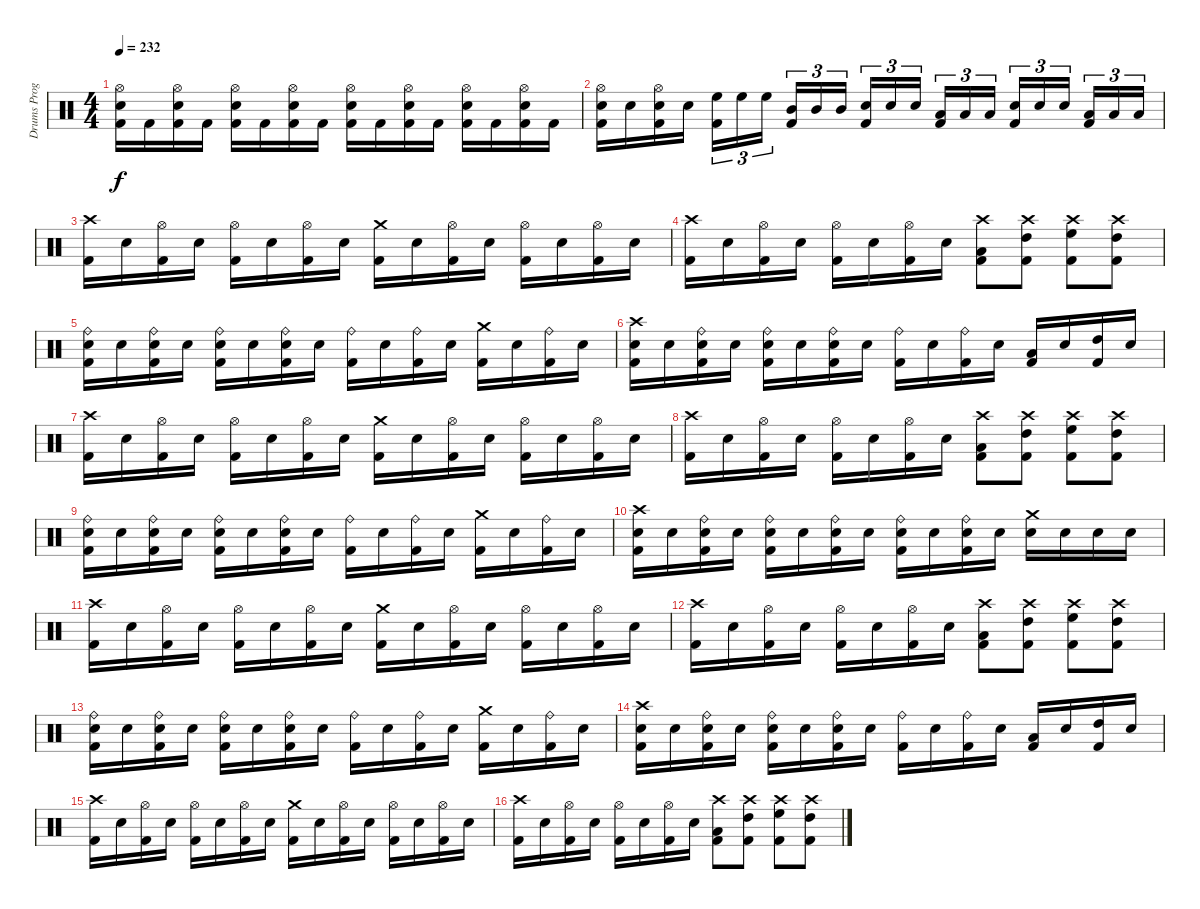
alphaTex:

\track ("Drums Programming" "Drums Prog") {instrument percussion}
\staff {score}
\articulation defaults
\ts (4 4)
\tempo 232
\clef neutral
\ks c
("Hi-Hat (open)" "Electric Snare (hit)" "Kick (hit) 2").16{dy f} "Kick (hit) 2".16 ("Hi-Hat (open)" "Electric Snare (hit)" "Kick (hit) 2").16 "Kick (hit) 2".16 ("Hi-Hat (open)" "Electric Snare (hit)" "Kick (hit) 2").16 "Kick (hit) 2".16 ("Hi-Hat (open)" "Electric Snare (hit)" "Kick (hit) 2").16 "Kick (hit) 2".16 ("Hi-Hat (open)" "Electric Snare (hit)" "Kick (hit) 2").16 "Kick (hit) 2".16 ("Hi-Hat (open)" "Electric Snare (hit)" "Kick (hit) 2").16 "Kick (hit) 2".16 ("Hi-Hat (open)" "Electric Snare (hit)" "Kick (hit) 2").16 "Kick (hit) 2".16 ("Hi-Hat (open)" "Electric Snare (hit)" "Kick (hit) 2").16 "Kick (hit) 2".16 |
("Hi-Hat (open)" "Electric Snare (hit)" "Kick (hit) 2").16 "Electric Snare (hit)".16 ("Hi-Hat (open)" "Electric Snare (hit)" "Kick (hit) 2").16 "Electric Snare (hit)".16 ("High Floor Tom (hit)" "Kick (hit) 2").16{tu (3 2)} "High Floor Tom (hit)".16{tu (3 2)} "High Floor Tom (hit)".16{tu (3 2)} ("Mid Tom (hit)" "Kick (hit) 2").16{tu (3 2)} "Mid Tom (hit)".16{tu (3 2)} "Mid Tom (hit)".16{tu (3 2)} ("Electric Snare (hit)" "Kick (hit) 2").16{tu (3 2)} "Electric Snare (hit)".16{tu (3 2)} "Electric Snare (hit)".16{tu (3 2)} ("Low Tom (hit)" "Kick (hit) 2").16{tu (3 2)} "Low Tom (hit)".16{tu (3 2)} "Low Tom (hit)".16{tu (3 2)} ("Electric Snare (hit)" "Kick (hit) 2").16{tu (3 2)} "Electric Snare (hit)".16{tu (3 2)} "Electric Snare (hit)".16{tu (3 2)} ("Low Floor Tom (hit)" "Kick (hit) 2").16{tu (3 2)} "Low Floor Tom (hit)".16{tu (3 2)} "Low Floor Tom (hit)".16{tu (3 2)} |
("Crash high (hit)" "Kick (hit) 2").16 "Electric Snare (hit)".16 ("Hi-Hat (open)" "Kick (hit) 2").16 "Electric Snare (hit)".16 ("Hi-Hat (open)" "Kick (hit) 2").16 "Electric Snare (hit)".16 ("Hi-Hat (open)" "Kick (hit) 2").16 "Electric Snare (hit)".16 ("Crash medium (hit)" "Kick (hit) 2").16 "Electric Snare (hit)".16 ("Hi-Hat (open)" "Kick (hit) 2").16 "Electric Snare (hit)".16 ("Hi-Hat (open)" "Kick (hit) 2").16 "Electric Snare (hit)".16 ("Hi-Hat (open)" "Kick (hit) 2").16 "Electric Snare (hit)".16 |
("Crash high (hit)" "Kick (hit) 2").16 "Electric Snare (hit)".16 ("Hi-Hat (open)" "Kick (hit) 2").16 "Electric Snare (hit)".16 ("Hi-Hat (open)" "Kick (hit) 2").16 "Electric Snare (hit)".16 ("Hi-Hat (open)" "Kick (hit) 2").16 "Electric Snare (hit)".16 ("Crash high (hit)" "Low Tom (hit)" "Kick (hit) 2").8 ("Crash high (hit)" "High Tom (hit)" "Kick (hit) 2").8 ("Crash high (hit)" "High Floor Tom (hit)" "Kick (hit) 2").8 ("Crash high (hit)" "High Tom (hit)" "Kick (hit) 2").8 |
("Ride (bell)" "Electric Snare (hit)" "Kick (hit) 2").16 "Electric Snare (hit)".16 ("Ride (bell)" "Electric Snare (hit)" "Kick (hit) 2").16 "Electric Snare (hit)".16 ("Ride (bell)" "Electric Snare (hit)" "Kick (hit) 2").16 "Electric Snare (hit)".16 ("Ride (bell)" "Electric Snare (hit)" "Kick (hit) 2").16 "Electric Snare (hit)".16 ("Ride (bell)" "Kick (hit) 2").16 "Electric Snare (hit)".16 ("Ride (bell)" "Kick (hit) 2").16 "Electric Snare (hit)".16 ("Crash medium (hit)" "Kick (hit) 2").16 "Electric Snare (hit)".16 ("Ride (bell)" "Kick (hit) 2").16 "Electric Snare (hit)".16 |
("Crash high (hit)" "Electric Snare (hit)" "Kick (hit) 2").16 "Electric Snare (hit)".16 ("Ride (bell)" "Electric Snare (hit)" "Kick (hit) 2").16 "Electric Snare (hit)".16 ("Ride (bell)" "Electric Snare (hit)" "Kick (hit) 2").16 "Electric Snare (hit)".16 ("Ride (bell)" "Electric Snare (hit)" "Kick (hit) 2").16 "Electric Snare (hit)".16 ("Ride (bell)" "Kick (hit) 2").16 "Electric Snare (hit)".16 ("Ride (bell)" "Kick (hit) 2").16 "Electric Snare (hit)".16 ("Low Tom (hit)" "Kick (hit) 2").16 "Electric Snare (hit)".16 ("High Tom (hit)" "Kick (hit) 2").16 "Electric Snare (hit)".16 |
("Crash high (hit)" "Kick (hit) 2").16 "Electric Snare (hit)".16 ("Hi-Hat (open)" "Kick (hit) 2").16 "Electric Snare (hit)".16 ("Hi-Hat (open)" "Kick (hit) 2").16 "Electric Snare (hit)".16 ("Hi-Hat (open)" "Kick (hit) 2").16 "Electric Snare (hit)".16 ("Crash medium (hit)" "Kick (hit) 2").16 "Electric Snare (hit)".16 ("Hi-Hat (open)" "Kick (hit) 2").16 "Electric Snare (hit)".16 ("Hi-Hat (open)" "Kick (hit) 2").16 "Electric Snare (hit)".16 ("Hi-Hat (open)" "Kick (hit) 2").16 "Electric Snare (hit)".16 |
("Crash high (hit)" "Kick (hit) 2").16 "Electric Snare (hit)".16 ("Hi-Hat (open)" "Kick (hit) 2").16 "Electric Snare (hit)".16 ("Hi-Hat (open)" "Kick (hit) 2").16 "Electric Snare (hit)".16 ("Hi-Hat (open)" "Kick (hit) 2").16 "Electric Snare (hit)".16 ("Crash high (hit)" "Low Tom (hit)" "Kick (hit) 2").8 ("Crash high (hit)" "High Tom (hit)" "Kick (hit) 2").8 ("Crash high (hit)" "High Floor Tom (hit)" "Kick (hit) 2").8 ("Crash high (hit)" "High Tom (hit)" "Kick (hit) 2").8 |
("Ride (bell)" "Electric Snare (hit)" "Kick (hit) 2").16 "Electric Snare (hit)".16 ("Ride (bell)" "Electric Snare (hit)" "Kick (hit) 2").16 "Electric Snare (hit)".16 ("Ride (bell)" "Electric Snare (hit)" "Kick (hit) 2").16 "Electric Snare (hit)".16 ("Ride (bell)" "Electric Snare (hit)" "Kick (hit) 2").16 "Electric Snare (hit)".16 ("Ride (bell)" "Kick (hit) 2").16 "Electric Snare (hit)".16 ("Ride (bell)" "Kick (hit) 2").16 "Electric Snare (hit)".16 ("Crash medium (hit)" "Kick (hit) 2").16 "Electric Snare (hit)".16 ("Ride (bell)" "Kick (hit) 2").16 "Electric Snare (hit)".16 |
("Crash high (hit)" "Electric Snare (hit)" "Kick (hit) 2").16 "Electric Snare (hit)".16 ("Ride (bell)" "Electric Snare (hit)" "Kick (hit) 2").16 "Electric Snare (hit)".16 ("Ride (bell)" "Electric Snare (hit)" "Kick (hit) 2").16 "Electric Snare (hit)".16 ("Ride (bell)" "Electric Snare (hit)" "Kick (hit) 2").16 "Electric Snare (hit)".16 ("Ride (bell)" "Electric Snare (hit)" "Kick (hit) 2").16 "Electric Snare (hit)".16 ("Ride (bell)" "Electric Snare (hit)" "Kick (hit) 2").16 "Electric Snare (hit)".16 ("Crash medium (hit)" "Electric Snare (hit)").16 "Electric Snare (hit)".16 "Electric Snare (hit)".16 "Electric Snare (hit)".16 |
("Crash high (hit)" "Kick (hit) 2").16 "Electric Snare (hit)".16 ("Hi-Hat (open)" "Kick (hit) 2").16 "Electric Snare (hit)".16 ("Hi-Hat (open)" "Kick (hit) 2").16 "Electric Snare (hit)".16 ("Hi-Hat (open)" "Kick (hit) 2").16 "Electric Snare (hit)".16 ("Crash medium (hit)" "Kick (hit) 2").16 "Electric Snare (hit)".16 ("Hi-Hat (open)" "Kick (hit) 2").16 "Electric Snare (hit)".16 ("Hi-Hat (open)" "Kick (hit) 2").16 "Electric Snare (hit)".16 ("Hi-Hat (open)" "Kick (hit) 2").16 "Electric Snare (hit)".16 |
("Crash high (hit)" "Kick (hit) 2").16 "Electric Snare (hit)".16 ("Hi-Hat (open)" "Kick (hit) 2").16 "Electric Snare (hit)".16 ("Hi-Hat (open)" "Kick (hit) 2").16 "Electric Snare (hit)".16 ("Hi-Hat (open)" "Kick (hit) 2").16 "Electric Snare (hit)".16 ("Crash high (hit)" "Low Tom (hit)" "Kick (hit) 2").8 ("Crash high (hit)" "High Tom (hit)" "Kick (hit) 2").8 ("Crash high (hit)" "High Floor Tom (hit)" "Kick (hit) 2").8 ("Crash high (hit)" "High Tom (hit)" "Kick (hit) 2").8 |
("Ride (bell)" "Electric Snare (hit)" "Kick (hit) 2").16 "Electric Snare (hit)".16 ("Ride (bell)" "Electric Snare (hit)" "Kick (hit) 2").16 "Electric Snare (hit)".16 ("Ride (bell)" "Electric Snare (hit)" "Kick (hit) 2").16 "Electric Snare (hit)".16 ("Ride (bell)" "Electric Snare (hit)" "Kick (hit) 2").16 "Electric Snare (hit)".16 ("Ride (bell)" "Kick (hit) 2").16 "Electric Snare (hit)".16 ("Ride (bell)" "Kick (hit) 2").16 "Electric Snare (hit)".16 ("Crash medium (hit)" "Kick (hit) 2").16 "Electric Snare (hit)".16 ("Ride (bell)" "Kick (hit) 2").16 "Electric Snare (hit)".16 |
("Crash high (hit)" "Electric Snare (hit)" "Kick (hit) 2").16 "Electric Snare (hit)".16 ("Ride (bell)" "Electric Snare (hit)" "Kick (hit) 2").16 "Electric Snare (hit)".16 ("Ride (bell)" "Electric Snare (hit)" "Kick (hit) 2").16 "Electric Snare (hit)".16 ("Ride (bell)" "Electric Snare (hit)" "Kick (hit) 2").16 "Electric Snare (hit)".16 ("Ride (bell)" "Kick (hit) 2").16 "Electric Snare (hit)".16 ("Ride (bell)" "Kick (hit) 2").16 "Electric Snare (hit)".16 ("Low Tom (hit)" "Kick (hit) 2").16 "Electric Snare (hit)".16 ("High Tom (hit)" "Kick (hit) 2").16 "Electric Snare (hit)".16 |
("Crash high (hit)" "Kick (hit) 2").16 "Electric Snare (hit)".16 ("Hi-Hat (open)" "Kick (hit) 2").16 "Electric Snare (hit)".16 ("Hi-Hat (open)" "Kick (hit) 2").16 "Electric Snare (hit)".16 ("Hi-Hat (open)" "Kick (hit) 2").16 "Electric Snare (hit)".16 ("Crash medium (hit)" "Kick (hit) 2").16 "Electric Snare (hit)".16 ("Hi-Hat (open)" "Kick (hit) 2").16 "Electric Snare (hit)".16 ("Hi-Hat (open)" "Kick (hit) 2").16 "Electric Snare (hit)".16 ("Hi-Hat (open)" "Kick (hit) 2").16 "Electric Snare (hit)".16 |
("Crash high (hit)" "Kick (hit) 2").16 "Electric Snare (hit)".16 ("Hi-Hat (open)" "Kick (hit) 2").16 "Electric Snare (hit)".16 ("Hi-Hat (open)" "Kick (hit) 2").16 "Electric Snare (hit)".16 ("Hi-Hat (open)" "Kick (hit) 2").16 "Electric Snare (hit)".16 ("Crash high (hit)" "Low Tom (hit)" "Kick (hit) 2").8 ("Crash high (hit)" "High Tom (hit)" "Kick (hit) 2").8 ("Crash high (hit)" "High Floor Tom (hit)" "Kick (hit) 2").8 ("Crash high (hit)" "High Tom (hit)" "Kick (hit) 2").8
